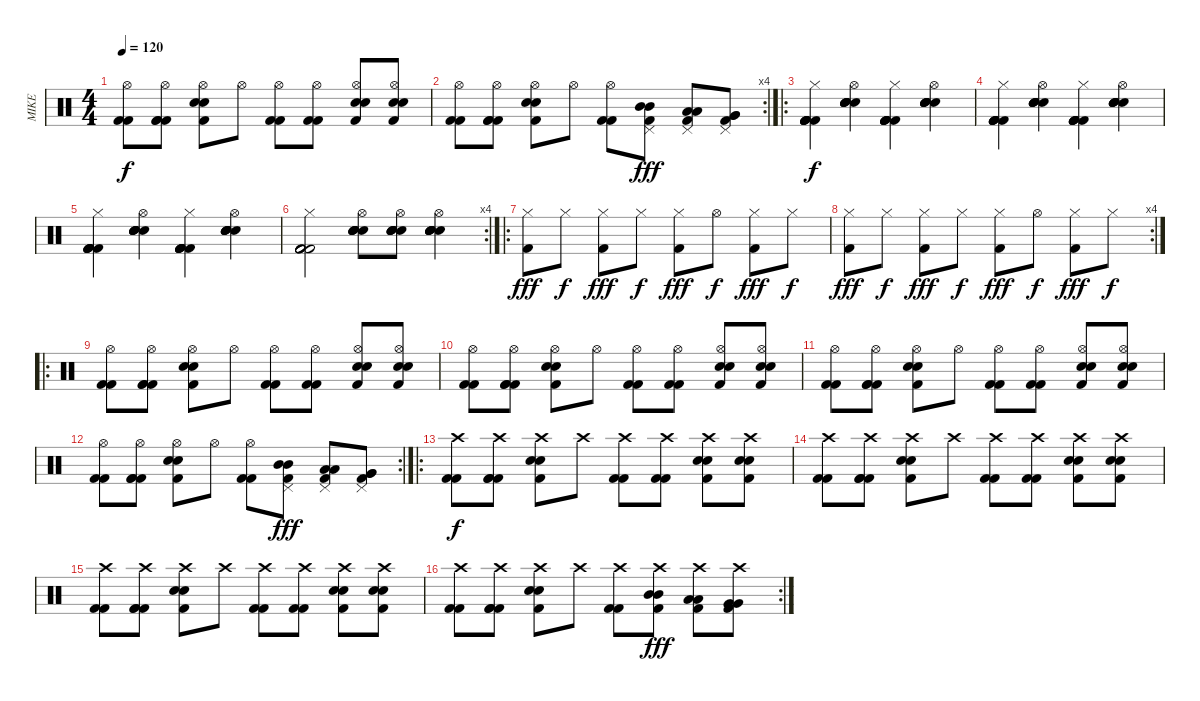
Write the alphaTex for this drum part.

\track ("MIKE" "MIKE") {instrument percussion}
\staff {score}
\articulation defaults
\ts (4 4)
\tempo 120
\clef neutral
\ks c
("Kick (hit) 2" "Kick (hit) 2" "Hi-Hat (open)").8{dy f} ("Kick (hit) 2" "Kick (hit) 2" "Kick (hit) 2" "Hi-Hat (open)").8 ("Kick (hit) 2" "Electric Snare (hit)" "Electric Snare (hit)" "Hi-Hat (open)").8 "Hi-Hat (open)".8 ("Kick (hit) 2" "Kick (hit) 2" "Hi-Hat (open)").8 ("Kick (hit) 2" "Kick (hit) 2" "Hi-Hat (open)").8 ("Kick (hit) 2" "Electric Snare (hit)" "Electric Snare (hit)" "Hi-Hat (open)").8 ("Kick (hit) 2" "Electric Snare (hit)" "Electric Snare (hit)" "Hi-Hat (open)").8 |
\rc 4
("Kick (hit) 2" "Kick (hit) 2" "Hi-Hat (open)").8 ("Kick (hit) 2" "Kick (hit) 2" "Kick (hit) 2" "Hi-Hat (open)").8 ("Kick (hit) 2" "Electric Snare (hit)" "Electric Snare (hit)" "Hi-Hat (open)").8 "Hi-Hat (open)".8 ("Kick (hit) 2" "Kick (hit) 2" "Hi-Hat (open)").8 ("Kick (hit) 2" "Mid Tom (hit)" "Mid Tom (hit)" "Pedal Hi-Hat (hit)").8{dy fff} ("Kick (hit) 2" "Low Tom (hit)" "Low Tom (hit)" "Pedal Hi-Hat (hit)").8 ("Kick (hit) 2" "Very Low Tom (hit)" "Very Low Tom (hit)" "Pedal Hi-Hat (hit)").8 |
\ro
("Hi-Hat (closed)" "Kick (hit) 2" "Kick (hit) 2" "Kick (hit) 2" "Kick (hit) 2" "Kick (hit) 2").4{dy f} ("Hi-Hat (open)" "Snare (hit) 2" "Snare (hit) 2" "Snare (hit) 2" "Snare (hit) 2" "Snare (hit) 2").4 ("Hi-Hat (closed)" "Kick (hit) 2" "Kick (hit) 2" "Kick (hit) 2" "Kick (hit) 2" "Kick (hit) 2").4 ("Hi-Hat (open)" "Snare (hit) 2" "Snare (hit) 2" "Snare (hit) 2" "Snare (hit) 2" "Snare (hit) 2").4 |
("Hi-Hat (closed)" "Kick (hit) 2" "Kick (hit) 2" "Kick (hit) 2" "Kick (hit) 2" "Kick (hit) 2").4 ("Hi-Hat (open)" "Snare (hit) 2" "Snare (hit) 2" "Snare (hit) 2" "Snare (hit) 2" "Snare (hit) 2").4 ("Hi-Hat (closed)" "Kick (hit) 2" "Kick (hit) 2" "Kick (hit) 2" "Kick (hit) 2" "Kick (hit) 2").4 ("Hi-Hat (open)" "Snare (hit) 2" "Snare (hit) 2" "Snare (hit) 2" "Snare (hit) 2" "Snare (hit) 2").4 |
("Hi-Hat (closed)" "Kick (hit) 2" "Kick (hit) 2" "Kick (hit) 2" "Kick (hit) 2" "Kick (hit) 2").4 ("Hi-Hat (open)" "Snare (hit) 2" "Snare (hit) 2" "Snare (hit) 2" "Snare (hit) 2" "Snare (hit) 2").4 ("Hi-Hat (closed)" "Kick (hit) 2" "Kick (hit) 2" "Kick (hit) 2" "Kick (hit) 2" "Kick (hit) 2").4 ("Hi-Hat (open)" "Snare (hit) 2" "Snare (hit) 2" "Snare (hit) 2" "Snare (hit) 2" "Snare (hit) 2").4 |
\rc 4
("Hi-Hat (closed)" "Kick (hit) 2" "Kick (hit) 2" "Kick (hit) 2" "Kick (hit) 2" "Kick (hit) 2").2 ("Hi-Hat (open)" "Snare (hit) 2" "Snare (hit) 2" "Snare (hit) 2" "Snare (hit) 2" "Snare (hit) 2").8 ("Hi-Hat (open)" "Snare (hit) 2" "Snare (hit) 2" "Snare (hit) 2" "Snare (hit) 2" "Snare (hit) 2").8 ("Hi-Hat (open)" "Snare (hit) 2" "Snare (hit) 2" "Snare (hit) 2" "Snare (hit) 2" "Snare (hit) 2").4 |
\ro
("Kick (hit) 2" "Hi-Hat (closed)").8{dy fff} "Hi-Hat (closed)".8{dy f} ("Kick (hit) 2" "Hi-Hat (closed)").8{dy fff} "Hi-Hat (closed)".8{dy f} ("Kick (hit) 2" "Hi-Hat (closed)").8{dy fff} "Hi-Hat (open)".8{dy f} ("Kick (hit) 2" "Hi-Hat (closed)").8{dy fff} "Hi-Hat (closed)".8{dy f} |
\rc 4
("Kick (hit) 2" "Hi-Hat (closed)").8{dy fff} "Hi-Hat (closed)".8{dy f} ("Kick (hit) 2" "Hi-Hat (closed)").8{dy fff} "Hi-Hat (closed)".8{dy f} ("Kick (hit) 2" "Hi-Hat (closed)").8{dy fff} "Hi-Hat (open)".8{dy f} ("Kick (hit) 2" "Hi-Hat (closed)").8{dy fff} "Hi-Hat (closed)".8{dy f} |
\ro
("Kick (hit) 2" "Kick (hit) 2" "Hi-Hat (open)").8 ("Kick (hit) 2" "Kick (hit) 2" "Kick (hit) 2" "Hi-Hat (open)").8 ("Kick (hit) 2" "Electric Snare (hit)" "Electric Snare (hit)" "Hi-Hat (open)").8 "Hi-Hat (open)".8 ("Kick (hit) 2" "Kick (hit) 2" "Hi-Hat (open)").8 ("Kick (hit) 2" "Kick (hit) 2" "Hi-Hat (open)").8 ("Kick (hit) 2" "Electric Snare (hit)" "Electric Snare (hit)" "Hi-Hat (open)").8 ("Kick (hit) 2" "Electric Snare (hit)" "Electric Snare (hit)" "Hi-Hat (open)").8 |
("Kick (hit) 2" "Kick (hit) 2" "Hi-Hat (open)").8 ("Kick (hit) 2" "Kick (hit) 2" "Kick (hit) 2" "Hi-Hat (open)").8 ("Kick (hit) 2" "Electric Snare (hit)" "Electric Snare (hit)" "Hi-Hat (open)").8 "Hi-Hat (open)".8 ("Kick (hit) 2" "Kick (hit) 2" "Hi-Hat (open)").8 ("Kick (hit) 2" "Kick (hit) 2" "Hi-Hat (open)").8 ("Kick (hit) 2" "Electric Snare (hit)" "Electric Snare (hit)" "Hi-Hat (open)").8 ("Kick (hit) 2" "Electric Snare (hit)" "Electric Snare (hit)" "Hi-Hat (open)").8 |
("Kick (hit) 2" "Kick (hit) 2" "Hi-Hat (open)").8 ("Kick (hit) 2" "Kick (hit) 2" "Kick (hit) 2" "Hi-Hat (open)").8 ("Kick (hit) 2" "Electric Snare (hit)" "Electric Snare (hit)" "Hi-Hat (open)").8 "Hi-Hat (open)".8 ("Kick (hit) 2" "Kick (hit) 2" "Hi-Hat (open)").8 ("Kick (hit) 2" "Kick (hit) 2" "Hi-Hat (open)").8 ("Kick (hit) 2" "Electric Snare (hit)" "Electric Snare (hit)" "Hi-Hat (open)").8 ("Kick (hit) 2" "Electric Snare (hit)" "Electric Snare (hit)" "Hi-Hat (open)").8 |
\rc 2
("Kick (hit) 2" "Kick (hit) 2" "Hi-Hat (open)").8 ("Kick (hit) 2" "Kick (hit) 2" "Kick (hit) 2" "Hi-Hat (open)").8 ("Kick (hit) 2" "Electric Snare (hit)" "Electric Snare (hit)" "Hi-Hat (open)").8 "Hi-Hat (open)".8 ("Kick (hit) 2" "Kick (hit) 2" "Hi-Hat (open)").8 ("Kick (hit) 2" "Mid Tom (hit)" "Mid Tom (hit)" "Pedal Hi-Hat (hit)").8{dy fff} ("Kick (hit) 2" "Low Tom (hit)" "Low Tom (hit)" "Pedal Hi-Hat (hit)").8 ("Kick (hit) 2" "Very Low Tom (hit)" "Very Low Tom (hit)" "Pedal Hi-Hat (hit)").8 |
\ro
("Kick (hit) 2" "Kick (hit) 2" "Crash high (hit)").8{dy f} ("Kick (hit) 2" "Kick (hit) 2" "Kick (hit) 2" "Crash high (hit)").8 ("Kick (hit) 2" "Electric Snare (hit)" "Electric Snare (hit)" "Crash high (hit)").8 "Crash high (hit)".8 ("Kick (hit) 2" "Kick (hit) 2" "Crash high (hit)").8 ("Kick (hit) 2" "Kick (hit) 2" "Crash high (hit)").8 ("Kick (hit) 2" "Electric Snare (hit)" "Electric Snare (hit)" "Crash high (hit)").8 ("Kick (hit) 2" "Electric Snare (hit)" "Electric Snare (hit)" "Crash high (hit)").8 |
("Kick (hit) 2" "Kick (hit) 2" "Crash high (hit)").8 ("Kick (hit) 2" "Kick (hit) 2" "Kick (hit) 2" "Crash high (hit)").8 ("Kick (hit) 2" "Electric Snare (hit)" "Electric Snare (hit)" "Crash high (hit)").8 "Crash high (hit)".8 ("Kick (hit) 2" "Kick (hit) 2" "Crash high (hit)").8 ("Kick (hit) 2" "Kick (hit) 2" "Crash high (hit)").8 ("Kick (hit) 2" "Electric Snare (hit)" "Electric Snare (hit)" "Crash high (hit)").8 ("Kick (hit) 2" "Electric Snare (hit)" "Electric Snare (hit)" "Crash high (hit)").8 |
("Kick (hit) 2" "Kick (hit) 2" "Crash high (hit)").8 ("Kick (hit) 2" "Kick (hit) 2" "Kick (hit) 2" "Crash high (hit)").8 ("Kick (hit) 2" "Electric Snare (hit)" "Electric Snare (hit)" "Crash high (hit)").8 "Crash high (hit)".8 ("Kick (hit) 2" "Kick (hit) 2" "Crash high (hit)").8 ("Kick (hit) 2" "Kick (hit) 2" "Crash high (hit)").8 ("Kick (hit) 2" "Electric Snare (hit)" "Electric Snare (hit)" "Crash high (hit)").8 ("Kick (hit) 2" "Electric Snare (hit)" "Electric Snare (hit)" "Crash high (hit)").8 |
\rc 2
("Kick (hit) 2" "Kick (hit) 2" "Crash high (hit)").8 ("Kick (hit) 2" "Kick (hit) 2" "Kick (hit) 2" "Crash high (hit)").8 ("Kick (hit) 2" "Electric Snare (hit)" "Electric Snare (hit)" "Crash high (hit)").8 "Crash high (hit)".8 ("Kick (hit) 2" "Kick (hit) 2" "Crash high (hit)").8 ("Kick (hit) 2" "Mid Tom (hit)" "Mid Tom (hit)" "Crash high (hit)").8{dy fff} ("Kick (hit) 2" "Low Tom (hit)" "Low Tom (hit)" "Crash high (hit)").8 ("Kick (hit) 2" "Very Low Tom (hit)" "Very Low Tom (hit)" "Crash high (hit)").8
